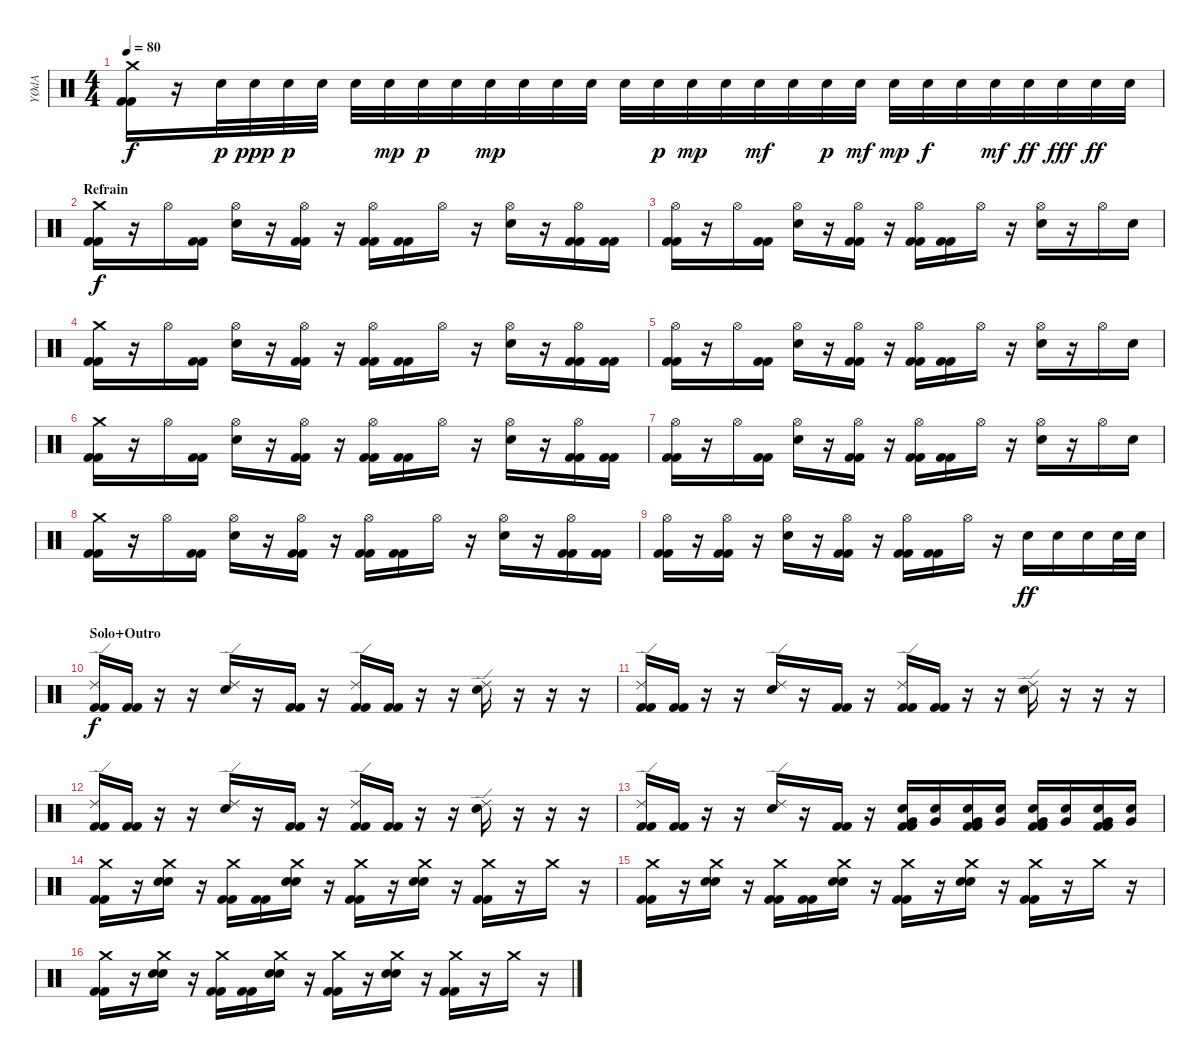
\track ("YØdA" "YØdA") {instrument percussion}
\staff {score}
\articulation defaults
\ts (4 4)
\tempo 80
\clef neutral
\ks c
("Kick (hit) 2" "Crash medium (hit)" "Kick (hit) 2").16{dy f} r.16 "Electric Snare (hit)".32{dy p} "Electric Snare (hit)".32{dy ppp} "Electric Snare (hit)".32{dy p} "Electric Snare (hit)".32 "Electric Snare (hit)".32 "Electric Snare (hit)".32{dy mp} "Electric Snare (hit)".32{dy p} "Electric Snare (hit)".32 "Electric Snare (hit)".32{dy mp} "Electric Snare (hit)".32 "Electric Snare (hit)".32 "Electric Snare (hit)".32 "Electric Snare (hit)".32 "Electric Snare (hit)".32{dy p} "Electric Snare (hit)".32{dy mp} "Electric Snare (hit)".32 "Electric Snare (hit)".32{dy mf} "Electric Snare (hit)".32 "Electric Snare (hit)".32{dy p} "Electric Snare (hit)".32{dy mf} "Electric Snare (hit)".32{dy mp} "Electric Snare (hit)".32{dy f} "Electric Snare (hit)".32 "Electric Snare (hit)".32{dy mf} "Electric Snare (hit)".32{dy ff} "Electric Snare (hit)".32{dy fff} "Electric Snare (hit)".32{dy ff} "Electric Snare (hit)".32 |
\section ("" "Refrain")
("Kick (hit) 2" "Crash medium (hit)" "Kick (hit) 2").16{dy f} r.16 "Hi-Hat (open)".16 ("Kick (hit) 2" "Kick (hit) 2").16 ("Hi-Hat (open)" "Electric Snare (hit)").16 r.16 ("Kick (hit) 2" "Hi-Hat (open)" "Kick (hit) 2").16 r.16 ("Kick (hit) 2" "Hi-Hat (open)" "Kick (hit) 2").16 ("Kick (hit) 2" "Kick (hit) 2").16 "Hi-Hat (open)".16 r.16 ("Hi-Hat (open)" "Electric Snare (hit)").16 r.16 ("Kick (hit) 2" "Hi-Hat (open)" "Kick (hit) 2").16 ("Kick (hit) 2" "Kick (hit) 2").16 |
("Kick (hit) 2" "Hi-Hat (open)" "Kick (hit) 2").16 r.16 "Hi-Hat (open)".16 ("Kick (hit) 2" "Kick (hit) 2").16 ("Hi-Hat (open)" "Electric Snare (hit)").16 r.16 ("Kick (hit) 2" "Hi-Hat (open)" "Kick (hit) 2").16 r.16 ("Kick (hit) 2" "Hi-Hat (open)" "Kick (hit) 2").16 ("Kick (hit) 2" "Kick (hit) 2").16 "Hi-Hat (open)".16 r.16 ("Hi-Hat (open)" "Electric Snare (hit)").16 r.16 "Hi-Hat (open)".16 "Electric Snare (hit)".16 |
("Kick (hit) 2" "Crash medium (hit)" "Kick (hit) 2").16 r.16 "Hi-Hat (open)".16 ("Kick (hit) 2" "Kick (hit) 2").16 ("Hi-Hat (open)" "Electric Snare (hit)").16 r.16 ("Kick (hit) 2" "Hi-Hat (open)" "Kick (hit) 2").16 r.16 ("Kick (hit) 2" "Hi-Hat (open)" "Kick (hit) 2").16 ("Kick (hit) 2" "Kick (hit) 2").16 "Hi-Hat (open)".16 r.16 ("Hi-Hat (open)" "Electric Snare (hit)").16 r.16 ("Kick (hit) 2" "Hi-Hat (open)" "Kick (hit) 2").16 ("Kick (hit) 2" "Kick (hit) 2").16 |
("Kick (hit) 2" "Hi-Hat (open)" "Kick (hit) 2").16 r.16 "Hi-Hat (open)".16 ("Kick (hit) 2" "Kick (hit) 2").16 ("Hi-Hat (open)" "Electric Snare (hit)").16 r.16 ("Kick (hit) 2" "Hi-Hat (open)" "Kick (hit) 2").16 r.16 ("Kick (hit) 2" "Hi-Hat (open)" "Kick (hit) 2").16 ("Kick (hit) 2" "Kick (hit) 2").16 "Hi-Hat (open)".16 r.16 ("Hi-Hat (open)" "Electric Snare (hit)").16 r.16 "Hi-Hat (open)".16 "Electric Snare (hit)".16 |
("Kick (hit) 2" "Crash medium (hit)" "Kick (hit) 2").16 r.16 "Hi-Hat (open)".16 ("Kick (hit) 2" "Kick (hit) 2").16 ("Hi-Hat (open)" "Electric Snare (hit)").16 r.16 ("Kick (hit) 2" "Hi-Hat (open)" "Kick (hit) 2").16 r.16 ("Kick (hit) 2" "Hi-Hat (open)" "Kick (hit) 2").16 ("Kick (hit) 2" "Kick (hit) 2").16 "Hi-Hat (open)".16 r.16 ("Hi-Hat (open)" "Electric Snare (hit)").16 r.16 ("Kick (hit) 2" "Hi-Hat (open)" "Kick (hit) 2").16 ("Kick (hit) 2" "Kick (hit) 2").16 |
("Kick (hit) 2" "Hi-Hat (open)" "Kick (hit) 2").16 r.16 "Hi-Hat (open)".16 ("Kick (hit) 2" "Kick (hit) 2").16 ("Hi-Hat (open)" "Electric Snare (hit)").16 r.16 ("Kick (hit) 2" "Hi-Hat (open)" "Kick (hit) 2").16 r.16 ("Kick (hit) 2" "Hi-Hat (open)" "Kick (hit) 2").16 ("Kick (hit) 2" "Kick (hit) 2").16 "Hi-Hat (open)".16 r.16 ("Hi-Hat (open)" "Electric Snare (hit)").16 r.16 "Hi-Hat (open)".16 "Electric Snare (hit)".16 |
("Kick (hit) 2" "Crash medium (hit)" "Kick (hit) 2").16 r.16 "Hi-Hat (open)".16 ("Kick (hit) 2" "Kick (hit) 2").16 ("Hi-Hat (open)" "Electric Snare (hit)").16 r.16 ("Kick (hit) 2" "Hi-Hat (open)" "Kick (hit) 2").16 r.16 ("Kick (hit) 2" "Hi-Hat (open)" "Kick (hit) 2").16 ("Kick (hit) 2" "Kick (hit) 2").16 "Hi-Hat (open)".16 r.16 ("Hi-Hat (open)" "Electric Snare (hit)").16 r.16 ("Kick (hit) 2" "Hi-Hat (open)" "Kick (hit) 2").16 ("Kick (hit) 2" "Kick (hit) 2").16 |
("Kick (hit) 2" "Hi-Hat (open)" "Kick (hit) 2").16 r.16 ("Kick (hit) 2" "Hi-Hat (open)" "Kick (hit) 2").16 r.16 ("Hi-Hat (open)" "Electric Snare (hit)").16 r.16 ("Kick (hit) 2" "Hi-Hat (open)" "Kick (hit) 2").16 r.16 ("Kick (hit) 2" "Hi-Hat (open)" "Kick (hit) 2").16 ("Kick (hit) 2" "Kick (hit) 2").16 "Hi-Hat (open)".16 r.16 "Electric Snare (hit)".16{dy ff} "Electric Snare (hit)".16 "Electric Snare (hit)".16 "Electric Snare (hit)".32 "Electric Snare (hit)".32 |
\section ("" "Solo+Outro")
("Kick (hit) 2" "Ride (edge) 2" "Kick (hit) 2").16{dy f} ("Kick (hit) 2" "Kick (hit) 2").16 r.16 r.16 ("Ride (edge) 2" "Electric Snare (hit)").16 r.16 ("Kick (hit) 2" "Kick (hit) 2").16 r.16 ("Kick (hit) 2" "Ride (edge) 2" "Kick (hit) 2").16 ("Kick (hit) 2" "Kick (hit) 2").16 r.16 r.16 ("Ride (edge) 2" "Electric Snare (hit)").16 r.16 r.16 r.16 |
("Kick (hit) 2" "Ride (edge) 2" "Kick (hit) 2").16 ("Kick (hit) 2" "Kick (hit) 2").16 r.16 r.16 ("Ride (edge) 2" "Electric Snare (hit)").16 r.16 ("Kick (hit) 2" "Kick (hit) 2").16 r.16 ("Kick (hit) 2" "Ride (edge) 2" "Kick (hit) 2").16 ("Kick (hit) 2" "Kick (hit) 2").16 r.16 r.16 ("Ride (edge) 2" "Electric Snare (hit)").16 r.16 r.16 r.16 |
("Kick (hit) 2" "Ride (edge) 2" "Kick (hit) 2").16 ("Kick (hit) 2" "Kick (hit) 2").16 r.16 r.16 ("Ride (edge) 2" "Electric Snare (hit)").16 r.16 ("Kick (hit) 2" "Kick (hit) 2").16 r.16 ("Kick (hit) 2" "Ride (edge) 2" "Kick (hit) 2").16 ("Kick (hit) 2" "Kick (hit) 2").16 r.16 r.16 ("Ride (edge) 2" "Electric Snare (hit)").16 r.16 r.16 r.16 |
("Kick (hit) 2" "Ride (edge) 2" "Kick (hit) 2").16 ("Kick (hit) 2" "Kick (hit) 2").16 r.16 r.16 ("Ride (edge) 2" "Electric Snare (hit)").16 r.16 ("Kick (hit) 2" "Kick (hit) 2").16 r.16 ("Kick (hit) 2" "Very Low Tom (hit)" "Electric Snare (hit)" "Kick (hit) 2").16 ("Very Low Tom (hit)" "Electric Snare (hit)").16 ("Kick (hit) 2" "Very Low Tom (hit)" "Electric Snare (hit)" "Kick (hit) 2").16 ("Very Low Tom (hit)" "Electric Snare (hit)").16 ("Kick (hit) 2" "Very Low Tom (hit)" "Electric Snare (hit)" "Kick (hit) 2").16 ("Very Low Tom (hit)" "Electric Snare (hit)").16 ("Kick (hit) 2" "Very Low Tom (hit)" "Electric Snare (hit)" "Kick (hit) 2").16 ("Very Low Tom (hit)" "Electric Snare (hit)").16 |
("Kick (hit) 2" "Crash medium (hit)" "Kick (hit) 2").16 r.16 ("Crash medium (hit)" "Electric Snare (hit)" "Electric Snare (hit)").16 r.16 ("Kick (hit) 2" "Crash medium (hit)" "Kick (hit) 2").16 ("Kick (hit) 2" "Kick (hit) 2").16 ("Crash medium (hit)" "Electric Snare (hit)" "Electric Snare (hit)").16 r.16 ("Kick (hit) 2" "Crash medium (hit)" "Kick (hit) 2").16 r.16 ("Crash medium (hit)" "Electric Snare (hit)" "Electric Snare (hit)").16 r.16 ("Kick (hit) 2" "Crash medium (hit)" "Kick (hit) 2").16 r.16 "Crash medium (hit)".16 r.16 |
("Kick (hit) 2" "Crash medium (hit)" "Kick (hit) 2").16 r.16 ("Crash medium (hit)" "Electric Snare (hit)" "Electric Snare (hit)").16 r.16 ("Kick (hit) 2" "Crash medium (hit)" "Kick (hit) 2").16 ("Kick (hit) 2" "Kick (hit) 2").16 ("Crash medium (hit)" "Electric Snare (hit)" "Electric Snare (hit)").16 r.16 ("Kick (hit) 2" "Crash medium (hit)" "Kick (hit) 2").16 r.16 ("Crash medium (hit)" "Electric Snare (hit)" "Electric Snare (hit)").16 r.16 ("Kick (hit) 2" "Crash medium (hit)" "Kick (hit) 2").16 r.16 "Crash medium (hit)".16 r.16 |
("Kick (hit) 2" "Crash medium (hit)" "Kick (hit) 2").16 r.16 ("Crash medium (hit)" "Electric Snare (hit)" "Electric Snare (hit)").16 r.16 ("Kick (hit) 2" "Crash medium (hit)" "Kick (hit) 2").16 ("Kick (hit) 2" "Kick (hit) 2").16 ("Crash medium (hit)" "Electric Snare (hit)" "Electric Snare (hit)").16 r.16 ("Kick (hit) 2" "Crash medium (hit)" "Kick (hit) 2").16 r.16 ("Crash medium (hit)" "Electric Snare (hit)" "Electric Snare (hit)").16 r.16 ("Kick (hit) 2" "Crash medium (hit)" "Kick (hit) 2").16 r.16 "Crash medium (hit)".16 r.16
